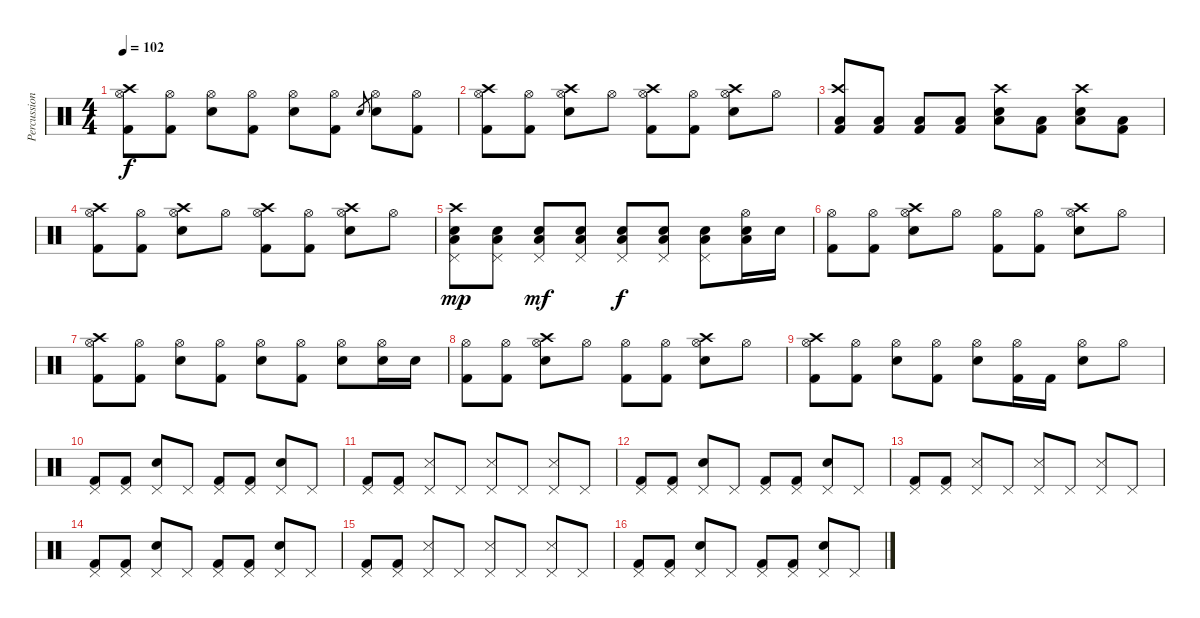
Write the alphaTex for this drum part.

\track ("Percussion" "Percussion") {instrument percussion}
\staff {score}
\articulation defaults
\ts (4 4)
\tempo 102
\clef neutral
\ks c
("Kick (hit) 2" "Hi-Hat (open)" "Crash high (hit)").8{dy f} ("Kick (hit) 2" "Hi-Hat (open)").8 ("Snare (hit) 2" "Hi-Hat (open)").8 ("Kick (hit) 2" "Hi-Hat (open)").8 ("Snare (hit) 2" "Hi-Hat (open)").8 ("Kick (hit) 2" "Hi-Hat (open)").8 "Snare (hit) 2".8{gr} ("Snare (hit) 2" "Hi-Hat (open)").8 ("Kick (hit) 2" "Hi-Hat (open)").8 |
("Kick (hit) 2" "Hi-Hat (open)" "Crash high (hit)").8 ("Kick (hit) 2" "Hi-Hat (open)").8 ("Snare (hit) 2" "Hi-Hat (open)" "Crash high (hit)").8 "Hi-Hat (open)".8 ("Kick (hit) 2" "Hi-Hat (open)" "Crash high (hit)").8 ("Kick (hit) 2" "Hi-Hat (open)").8 ("Snare (hit) 2" "Hi-Hat (open)" "Crash high (hit)").8 "Hi-Hat (open)".8 |
("Kick (hit) 2" "Low Tom (hit)" "Crash high (hit)").8 ("Kick (hit) 2" "Low Tom (hit)").8 ("Kick (hit) 2" "Low Tom (hit)").8 ("Kick (hit) 2" "Low Tom (hit)").8 ("Snare (hit) 2" "Low Tom (hit)" "Crash high (hit)").8 ("Kick (hit) 2" "Low Tom (hit)").8 ("Snare (hit) 2" "Low Tom (hit)" "Crash high (hit)").8 ("Kick (hit) 2" "Low Tom (hit)").8 |
("Kick (hit) 2" "Hi-Hat (open)" "Crash high (hit)").8 ("Kick (hit) 2" "Hi-Hat (open)").8 ("Snare (hit) 2" "Hi-Hat (open)" "Crash high (hit)").8 "Hi-Hat (open)".8 ("Kick (hit) 2" "Hi-Hat (open)" "Crash high (hit)").8 ("Kick (hit) 2" "Hi-Hat (open)").8 ("Snare (hit) 2" "Hi-Hat (open)" "Crash high (hit)").8 "Hi-Hat (open)".8 |
("Snare (hit) 2" "Low Tom (hit)" "Crash high (hit)" "Pedal Hi-Hat (hit)").8{dy mp} ("Snare (hit) 2" "Low Tom (hit)" "Pedal Hi-Hat (hit)").8 ("Snare (hit) 2" "Low Tom (hit)" "Pedal Hi-Hat (hit)").8{dy mf} ("Snare (hit) 2" "Low Tom (hit)" "Pedal Hi-Hat (hit)").8 ("Snare (hit) 2" "Low Tom (hit)" "Pedal Hi-Hat (hit)").8{dy f} ("Snare (hit) 2" "Low Tom (hit)" "Pedal Hi-Hat (hit)").8 ("Snare (hit) 2" "Low Tom (hit)" "Pedal Hi-Hat (hit)").8 ("Snare (hit) 2" "Low Tom (hit)" "Hi-Hat (open)").16 "Snare (hit) 2".16 |
("Kick (hit) 2" "Hi-Hat (open)").8 ("Kick (hit) 2" "Hi-Hat (open)").8 ("Snare (hit) 2" "Hi-Hat (open)" "Crash high (hit)").8 "Hi-Hat (open)".8 ("Kick (hit) 2" "Hi-Hat (open)").8 ("Kick (hit) 2" "Hi-Hat (open)").8 ("Snare (hit) 2" "Hi-Hat (open)" "Crash high (hit)").8 "Hi-Hat (open)".8 |
("Kick (hit) 2" "Hi-Hat (open)" "Crash high (hit)").8 ("Kick (hit) 2" "Hi-Hat (open)").8 ("Snare (hit) 2" "Hi-Hat (open)").8 ("Kick (hit) 2" "Hi-Hat (open)").8 ("Snare (hit) 2" "Hi-Hat (open)").8 ("Kick (hit) 2" "Hi-Hat (open)").8 ("Snare (hit) 2" "Hi-Hat (open)").8 ("Snare (hit) 2" "Hi-Hat (open)").16 "Snare (hit) 2".16 |
("Kick (hit) 2" "Hi-Hat (open)").8 ("Kick (hit) 2" "Hi-Hat (open)").8 ("Snare (hit) 2" "Hi-Hat (open)" "Crash high (hit)").8 "Hi-Hat (open)".8 ("Kick (hit) 2" "Hi-Hat (open)").8 ("Kick (hit) 2" "Hi-Hat (open)").8 ("Snare (hit) 2" "Hi-Hat (open)" "Crash high (hit)").8 "Hi-Hat (open)".8 |
("Kick (hit) 2" "Hi-Hat (open)" "Crash high (hit)").8 ("Kick (hit) 2" "Hi-Hat (open)").8 ("Snare (hit) 2" "Hi-Hat (open)").8 ("Kick (hit) 2" "Hi-Hat (open)").8 ("Snare (hit) 2" "Hi-Hat (open)").8 ("Kick (hit) 2" "Hi-Hat (open)").16 "Kick (hit) 2".16 ("Snare (hit) 2" "Hi-Hat (open)").8 "Hi-Hat (open)".8 |
("Kick (hit) 2" "Pedal Hi-Hat (hit)").8 ("Kick (hit) 2" "Pedal Hi-Hat (hit)").8 ("Snare (hit) 2" "Pedal Hi-Hat (hit)").8 "Pedal Hi-Hat (hit)".8 ("Kick (hit) 2" "Pedal Hi-Hat (hit)").8 ("Kick (hit) 2" "Pedal Hi-Hat (hit)").8 ("Snare (hit) 2" "Pedal Hi-Hat (hit)").8 "Pedal Hi-Hat (hit)".8 |
("Kick (hit) 2" "Pedal Hi-Hat (hit)").8 ("Kick (hit) 2" "Pedal Hi-Hat (hit)").8 ("Metronome (hit)" "Pedal Hi-Hat (hit)").8 "Pedal Hi-Hat (hit)".8 ("Metronome (hit)" "Pedal Hi-Hat (hit)").8 "Pedal Hi-Hat (hit)".8 ("Metronome (hit)" "Pedal Hi-Hat (hit)").8 "Pedal Hi-Hat (hit)".8 |
("Kick (hit) 2" "Pedal Hi-Hat (hit)").8 ("Kick (hit) 2" "Pedal Hi-Hat (hit)").8 ("Snare (hit) 2" "Pedal Hi-Hat (hit)").8 "Pedal Hi-Hat (hit)".8 ("Kick (hit) 2" "Pedal Hi-Hat (hit)").8 ("Kick (hit) 2" "Pedal Hi-Hat (hit)").8 ("Snare (hit) 2" "Pedal Hi-Hat (hit)").8 "Pedal Hi-Hat (hit)".8 |
("Kick (hit) 2" "Pedal Hi-Hat (hit)").8 ("Kick (hit) 2" "Pedal Hi-Hat (hit)").8 ("Metronome (hit)" "Pedal Hi-Hat (hit)").8 "Pedal Hi-Hat (hit)".8 ("Metronome (hit)" "Pedal Hi-Hat (hit)").8 "Pedal Hi-Hat (hit)".8 ("Metronome (hit)" "Pedal Hi-Hat (hit)").8 "Pedal Hi-Hat (hit)".8 |
("Kick (hit) 2" "Pedal Hi-Hat (hit)").8 ("Kick (hit) 2" "Pedal Hi-Hat (hit)").8 ("Snare (hit) 2" "Pedal Hi-Hat (hit)").8 "Pedal Hi-Hat (hit)".8 ("Kick (hit) 2" "Pedal Hi-Hat (hit)").8 ("Kick (hit) 2" "Pedal Hi-Hat (hit)").8 ("Snare (hit) 2" "Pedal Hi-Hat (hit)").8 "Pedal Hi-Hat (hit)".8 |
("Kick (hit) 2" "Pedal Hi-Hat (hit)").8 ("Kick (hit) 2" "Pedal Hi-Hat (hit)").8 ("Metronome (hit)" "Pedal Hi-Hat (hit)").8 "Pedal Hi-Hat (hit)".8 ("Metronome (hit)" "Pedal Hi-Hat (hit)").8 "Pedal Hi-Hat (hit)".8 ("Metronome (hit)" "Pedal Hi-Hat (hit)").8 "Pedal Hi-Hat (hit)".8 |
("Kick (hit) 2" "Pedal Hi-Hat (hit)").8 ("Kick (hit) 2" "Pedal Hi-Hat (hit)").8 ("Snare (hit) 2" "Pedal Hi-Hat (hit)").8 "Pedal Hi-Hat (hit)".8 ("Kick (hit) 2" "Pedal Hi-Hat (hit)").8 ("Kick (hit) 2" "Pedal Hi-Hat (hit)").8 ("Snare (hit) 2" "Pedal Hi-Hat (hit)").8 "Pedal Hi-Hat (hit)".8
